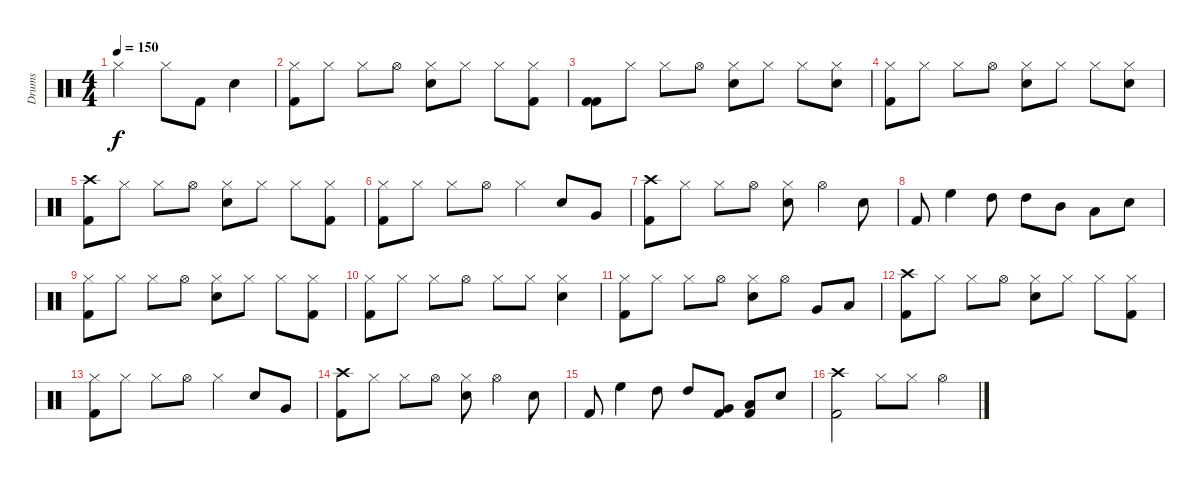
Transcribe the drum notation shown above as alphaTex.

\track ("Drums" "Drums") {instrument percussion}
\staff {score}
\articulation defaults
\ts (4 4)
\tempo 150
\clef neutral
\ks c "Hi-Hat (closed)".2{dy f} "Hi-Hat (closed)".8 "Kick (hit) 2".8 "Electric Snare (hit)".4
|
("Hi-Hat (closed)" "Kick (hit) 2").8 "Hi-Hat (closed)".8 "Hi-Hat (closed)".8 "Hi-Hat (open)".8 ("Hi-Hat (closed)" "Electric Snare (hit)").8 "Hi-Hat (closed)".8 "Hi-Hat (closed)".8 ("Hi-Hat (closed)" "Kick (hit) 2").8 |
("Kick (hit) 2" "Kick (hit) 2").8 "Hi-Hat (closed)".8 "Hi-Hat (closed)".8 "Hi-Hat (open)".8 ("Hi-Hat (closed)" "Electric Snare (hit)").8 "Hi-Hat (closed)".8 "Hi-Hat (closed)".8 ("Hi-Hat (closed)" "Electric Snare (hit)").8 |
("Hi-Hat (closed)" "Kick (hit) 2").8 "Hi-Hat (closed)".8 "Hi-Hat (closed)".8 "Hi-Hat (open)".8 ("Hi-Hat (closed)" "Electric Snare (hit)").8 "Hi-Hat (closed)".8 "Hi-Hat (closed)".8 ("Hi-Hat (closed)" "Electric Snare (hit)").8 |
("Crash high (hit)" "Kick (hit) 2").8 "Hi-Hat (closed)".8 "Hi-Hat (closed)".8 "Hi-Hat (open)".8 ("Hi-Hat (closed)" "Electric Snare (hit)").8 "Hi-Hat (closed)".8 "Hi-Hat (closed)".8 ("Hi-Hat (closed)" "Kick (hit) 2").8 |
("Hi-Hat (closed)" "Kick (hit) 2").8 "Hi-Hat (closed)".8 "Hi-Hat (closed)".8 "Hi-Hat (open)".8 "Hi-Hat (closed)".4 "Electric Snare (hit)".8 "Very Low Tom (hit)".8 |
("Crash high (hit)" "Kick (hit) 2").8 "Hi-Hat (closed)".8 "Hi-Hat (closed)".8 "Hi-Hat (open)".8 ("Hi-Hat (closed)" "Electric Snare (hit)").8 "Hi-Hat (open)".4 "Electric Snare (hit)".8 |
"Kick (hit) 2".8 "High Floor Tom (hit)".4 "High Tom (hit)".8 "High Tom (hit)".8 "Mid Tom (hit)".8 "Low Tom (hit)".8 "Electric Snare (hit)".8 |
("Hi-Hat (closed)" "Kick (hit) 2").8 "Hi-Hat (closed)".8 "Hi-Hat (closed)".8 "Hi-Hat (open)".8 ("Hi-Hat (closed)" "Electric Snare (hit)").8 "Hi-Hat (closed)".8 "Hi-Hat (closed)".8 ("Hi-Hat (closed)" "Kick (hit) 2").8 |
("Hi-Hat (closed)" "Kick (hit) 2").8 "Hi-Hat (closed)".8 "Hi-Hat (closed)".8 "Hi-Hat (open)".8 "Hi-Hat (closed)".8 "Hi-Hat (closed)".8 ("Hi-Hat (closed)" "Electric Snare (hit)").4 |
("Hi-Hat (closed)" "Kick (hit) 2").8 "Hi-Hat (closed)".8 "Hi-Hat (closed)".8 "Hi-Hat (open)".8 ("Hi-Hat (closed)" "Electric Snare (hit)").8 "Hi-Hat (open)".8 "Very Low Tom (hit)".8 "Low Floor Tom (hit)".8 |
("Crash high (hit)" "Kick (hit) 2").8 "Hi-Hat (closed)".8 "Hi-Hat (closed)".8 "Hi-Hat (open)".8 ("Hi-Hat (closed)" "Electric Snare (hit)").8 "Hi-Hat (closed)".8 "Hi-Hat (closed)".8 ("Hi-Hat (closed)" "Kick (hit) 2").8 |
("Hi-Hat (closed)" "Kick (hit) 2").8 "Hi-Hat (closed)".8 "Hi-Hat (closed)".8 "Hi-Hat (open)".8 "Hi-Hat (closed)".4 "Electric Snare (hit)".8 "Very Low Tom (hit)".8 |
("Crash high (hit)" "Kick (hit) 2").8 "Hi-Hat (closed)".8 "Hi-Hat (closed)".8 "Hi-Hat (open)".8 ("Hi-Hat (closed)" "Electric Snare (hit)").8 "Hi-Hat (open)".4 "Electric Snare (hit)".8 |
"Kick (hit) 2".8 "High Floor Tom (hit)".4 "High Tom (hit)".8 "High Tom (hit)".8 ("Very Low Tom (hit)" "Kick (hit) 2").8 ("Low Floor Tom (hit)" "Kick (hit) 2").8 "Electric Snare (hit)".8 |
("Crash high (hit)" "Kick (hit) 2").2 "Hi-Hat (closed)".8 "Hi-Hat (closed)".8 "Hi-Hat (open)".4
